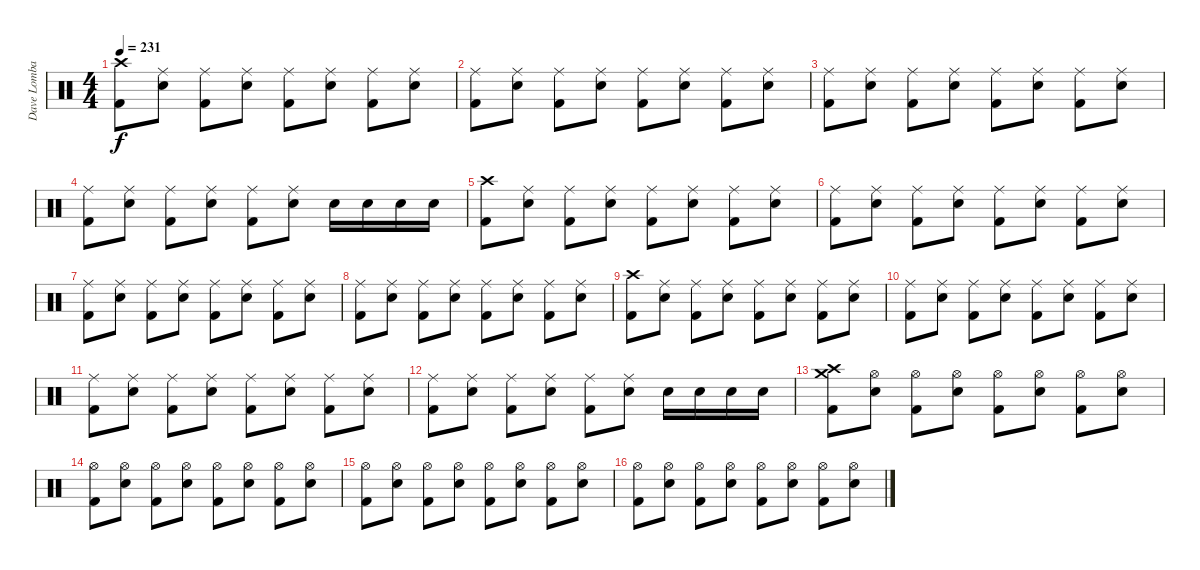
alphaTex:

\track ("Dave Lombardo" "Dave Lomba") {instrument percussion}
\staff {score}
\articulation defaults
\ts (4 4)
\tempo 231
\clef neutral
\ks c
("Kick (hit) 2" "Crash high (hit)").8{dy f} ("Ride (middle)" "Electric Snare (hit)").8 ("Ride (middle)" "Kick (hit) 2").8 ("Ride (middle)" "Electric Snare (hit)").8 ("Ride (middle)" "Kick (hit) 2").8 ("Ride (middle)" "Electric Snare (hit)").8 ("Ride (middle)" "Kick (hit) 2").8 ("Ride (middle)" "Electric Snare (hit)").8 |
("Ride (middle)" "Kick (hit) 2").8 ("Ride (middle)" "Electric Snare (hit)").8 ("Ride (middle)" "Kick (hit) 2").8 ("Ride (middle)" "Electric Snare (hit)").8 ("Ride (middle)" "Kick (hit) 2").8 ("Ride (middle)" "Electric Snare (hit)").8 ("Ride (middle)" "Kick (hit) 2").8 ("Ride (middle)" "Electric Snare (hit)").8 |
("Ride (middle)" "Kick (hit) 2").8 ("Ride (middle)" "Electric Snare (hit)").8 ("Ride (middle)" "Kick (hit) 2").8 ("Ride (middle)" "Electric Snare (hit)").8 ("Ride (middle)" "Kick (hit) 2").8 ("Ride (middle)" "Electric Snare (hit)").8 ("Ride (middle)" "Kick (hit) 2").8 ("Ride (middle)" "Electric Snare (hit)").8 |
("Ride (middle)" "Kick (hit) 2").8 ("Ride (middle)" "Electric Snare (hit)").8 ("Ride (middle)" "Kick (hit) 2").8 ("Ride (middle)" "Electric Snare (hit)").8 ("Ride (middle)" "Kick (hit) 2").8 ("Ride (middle)" "Electric Snare (hit)").8 "Electric Snare (hit)".16 "Electric Snare (hit)".16 "Electric Snare (hit)".16 "Electric Snare (hit)".16 |
("Kick (hit) 2" "Crash high (hit)").8 ("Ride (middle)" "Electric Snare (hit)").8 ("Ride (middle)" "Kick (hit) 2").8 ("Ride (middle)" "Electric Snare (hit)").8 ("Ride (middle)" "Kick (hit) 2").8 ("Ride (middle)" "Electric Snare (hit)").8 ("Ride (middle)" "Kick (hit) 2").8 ("Ride (middle)" "Electric Snare (hit)").8 |
("Ride (middle)" "Kick (hit) 2").8 ("Ride (middle)" "Electric Snare (hit)").8 ("Ride (middle)" "Kick (hit) 2").8 ("Ride (middle)" "Electric Snare (hit)").8 ("Ride (middle)" "Kick (hit) 2").8 ("Ride (middle)" "Electric Snare (hit)").8 ("Ride (middle)" "Kick (hit) 2").8 ("Ride (middle)" "Electric Snare (hit)").8 |
("Ride (middle)" "Kick (hit) 2").8 ("Ride (middle)" "Electric Snare (hit)").8 ("Ride (middle)" "Kick (hit) 2").8 ("Ride (middle)" "Electric Snare (hit)").8 ("Ride (middle)" "Kick (hit) 2").8 ("Ride (middle)" "Electric Snare (hit)").8 ("Ride (middle)" "Kick (hit) 2").8 ("Ride (middle)" "Electric Snare (hit)").8 |
("Ride (middle)" "Kick (hit) 2").8 ("Ride (middle)" "Electric Snare (hit)").8 ("Ride (middle)" "Kick (hit) 2").8 ("Ride (middle)" "Electric Snare (hit)").8 ("Ride (middle)" "Kick (hit) 2").8 ("Ride (middle)" "Electric Snare (hit)").8 ("Ride (middle)" "Kick (hit) 2").8 ("Ride (middle)" "Electric Snare (hit)").8 |
("Kick (hit) 2" "Crash high (hit)").8 ("Ride (middle)" "Electric Snare (hit)").8 ("Ride (middle)" "Kick (hit) 2").8 ("Ride (middle)" "Electric Snare (hit)").8 ("Ride (middle)" "Kick (hit) 2").8 ("Ride (middle)" "Electric Snare (hit)").8 ("Ride (middle)" "Kick (hit) 2").8 ("Ride (middle)" "Electric Snare (hit)").8 |
("Ride (middle)" "Kick (hit) 2").8 ("Ride (middle)" "Electric Snare (hit)").8 ("Ride (middle)" "Kick (hit) 2").8 ("Ride (middle)" "Electric Snare (hit)").8 ("Ride (middle)" "Kick (hit) 2").8 ("Ride (middle)" "Electric Snare (hit)").8 ("Ride (middle)" "Kick (hit) 2").8 ("Ride (middle)" "Electric Snare (hit)").8 |
("Ride (middle)" "Kick (hit) 2").8 ("Ride (middle)" "Electric Snare (hit)").8 ("Ride (middle)" "Kick (hit) 2").8 ("Ride (middle)" "Electric Snare (hit)").8 ("Ride (middle)" "Kick (hit) 2").8 ("Ride (middle)" "Electric Snare (hit)").8 ("Ride (middle)" "Kick (hit) 2").8 ("Ride (middle)" "Electric Snare (hit)").8 |
("Ride (middle)" "Kick (hit) 2").8 ("Ride (middle)" "Electric Snare (hit)").8 ("Ride (middle)" "Kick (hit) 2").8 ("Ride (middle)" "Electric Snare (hit)").8 ("Ride (middle)" "Kick (hit) 2").8 ("Ride (middle)" "Electric Snare (hit)").8 "Electric Snare (hit)".16 "Electric Snare (hit)".16 "Electric Snare (hit)".16 "Electric Snare (hit)".16 |
("Crash high (hit)" "Kick (hit) 2" "Crash medium (hit)").8 ("Electric Snare (hit)" "Hi-Hat (open)").8 ("Kick (hit) 2" "Hi-Hat (open)").8 ("Electric Snare (hit)" "Hi-Hat (open)").8 ("Kick (hit) 2" "Hi-Hat (open)").8 ("Electric Snare (hit)" "Hi-Hat (open)").8 ("Kick (hit) 2" "Hi-Hat (open)").8 ("Electric Snare (hit)" "Hi-Hat (open)").8 |
("Hi-Hat (open)" "Kick (hit) 2").8 ("Electric Snare (hit)" "Hi-Hat (open)").8 ("Kick (hit) 2" "Hi-Hat (open)").8 ("Electric Snare (hit)" "Hi-Hat (open)").8 ("Kick (hit) 2" "Hi-Hat (open)").8 ("Electric Snare (hit)" "Hi-Hat (open)").8 ("Kick (hit) 2" "Hi-Hat (open)").8 ("Electric Snare (hit)" "Hi-Hat (open)").8 |
("Hi-Hat (open)" "Kick (hit) 2").8 ("Electric Snare (hit)" "Hi-Hat (open)").8 ("Kick (hit) 2" "Hi-Hat (open)").8 ("Electric Snare (hit)" "Hi-Hat (open)").8 ("Kick (hit) 2" "Hi-Hat (open)").8 ("Electric Snare (hit)" "Hi-Hat (open)").8 ("Kick (hit) 2" "Hi-Hat (open)").8 ("Electric Snare (hit)" "Hi-Hat (open)").8 |
("Hi-Hat (open)" "Kick (hit) 2").8 ("Electric Snare (hit)" "Hi-Hat (open)").8 ("Kick (hit) 2" "Hi-Hat (open)").8 ("Electric Snare (hit)" "Hi-Hat (open)").8 ("Kick (hit) 2" "Hi-Hat (open)").8 ("Electric Snare (hit)" "Hi-Hat (open)").8 ("Kick (hit) 2" "Hi-Hat (open)").8 ("Electric Snare (hit)" "Hi-Hat (open)").8
